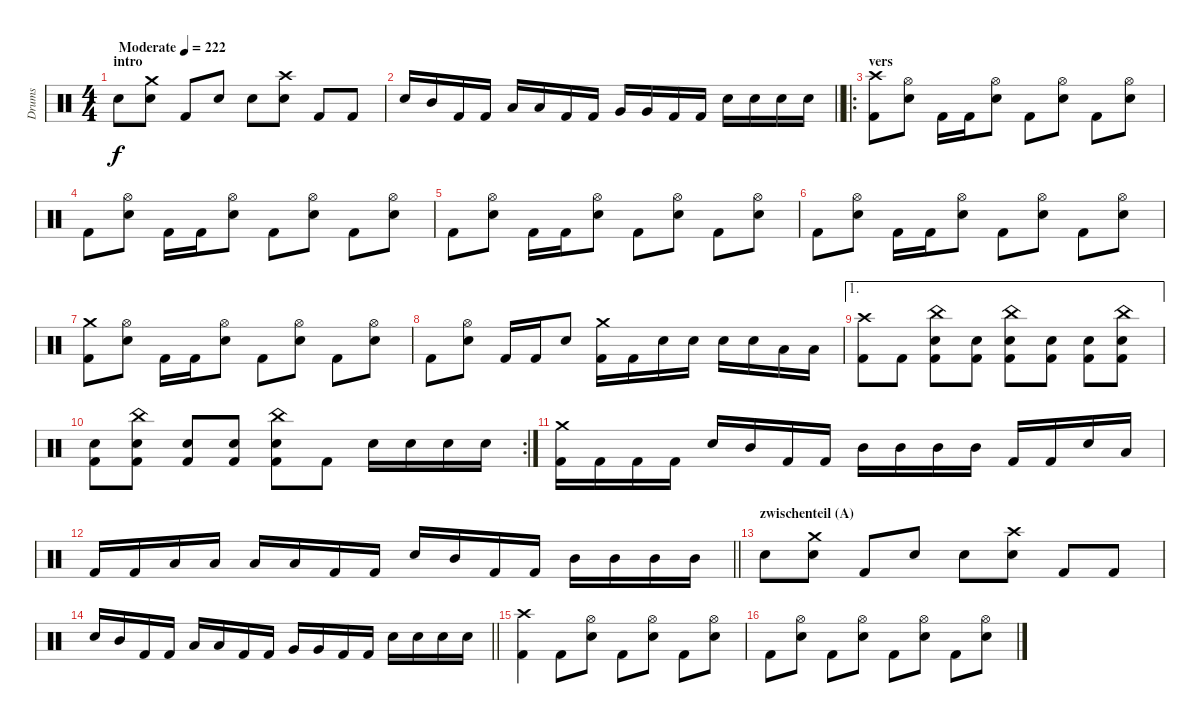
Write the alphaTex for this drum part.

\track ("Drums" "Drums") {instrument percussion}
\staff {score}
\articulation defaults
\ts (4 4)
\section ("" "intro")
\tempo (222 "Moderate")
\clef neutral
\ks c "Electric Snare (hit)".8{dy f}
("Crash medium (hit)" "Electric Snare (hit)").8 "Kick (hit) 2".8 "Electric Snare (hit)".8 "Electric Snare (hit)".8 ("Crash high (hit)" "Electric Snare (hit)").8 "Kick (hit) 2".8 "Kick (hit) 2".8 |
\barLineRight lightlight "Electric Snare (hit)".16 "Mid Tom (hit)".16 "Kick (hit) 2".16 "Kick (hit) 2".16 "Low Tom (hit)".16 "Low Tom (hit)".16 "Kick (hit) 2".16 "Kick (hit) 2".16 "Very Low Tom (hit)".16 "Very Low Tom (hit)".16 "Kick (hit) 2".16 "Kick (hit) 2".16 "Electric Snare (hit)".16 "Electric Snare (hit)".16 "Electric Snare (hit)".16 "Electric Snare (hit)".16
|
\ro
\section ("" "vers")
("Crash high (hit)" "Kick (hit) 2").8 ("Hi-Hat (open)" "Electric Snare (hit)").8 "Kick (hit) 2".16 "Kick (hit) 2".16 ("Hi-Hat (open)" "Electric Snare (hit)").8 "Kick (hit) 2".8 ("Hi-Hat (open)" "Electric Snare (hit)").8 "Kick (hit) 2".8 ("Hi-Hat (open)" "Electric Snare (hit)").8 |
"Kick (hit) 2".8 ("Hi-Hat (open)" "Electric Snare (hit)").8 "Kick (hit) 2".16 "Kick (hit) 2".16 ("Hi-Hat (open)" "Electric Snare (hit)").8 "Kick (hit) 2".8 ("Hi-Hat (open)" "Electric Snare (hit)").8 "Kick (hit) 2".8 ("Hi-Hat (open)" "Electric Snare (hit)").8 |
"Kick (hit) 2".8 ("Hi-Hat (open)" "Electric Snare (hit)").8 "Kick (hit) 2".16 "Kick (hit) 2".16 ("Hi-Hat (open)" "Electric Snare (hit)").8 "Kick (hit) 2".8 ("Hi-Hat (open)" "Electric Snare (hit)").8 "Kick (hit) 2".8 ("Hi-Hat (open)" "Electric Snare (hit)").8 |
"Kick (hit) 2".8 ("Hi-Hat (open)" "Electric Snare (hit)").8 "Kick (hit) 2".16 "Kick (hit) 2".16 ("Hi-Hat (open)" "Electric Snare (hit)").8 "Kick (hit) 2".8 ("Hi-Hat (open)" "Electric Snare (hit)").8 "Kick (hit) 2".8 ("Hi-Hat (open)" "Electric Snare (hit)").8 |
("Crash medium (hit)" "Kick (hit) 2").8 ("Hi-Hat (open)" "Electric Snare (hit)").8 "Kick (hit) 2".16 "Kick (hit) 2".16 ("Hi-Hat (open)" "Electric Snare (hit)").8 "Kick (hit) 2".8 ("Hi-Hat (open)" "Electric Snare (hit)").8 "Kick (hit) 2".8 ("Hi-Hat (open)" "Electric Snare (hit)").8 |
"Kick (hit) 2".8 ("Hi-Hat (open)" "Electric Snare (hit)").8 "Kick (hit) 2".16 "Kick (hit) 2".16 "Electric Snare (hit)".8 ("Crash medium (hit)" "Kick (hit) 2").16 "Kick (hit) 2".16 "Electric Snare (hit)".16 "Electric Snare (hit)".16 "Electric Snare (hit)".16 "Electric Snare (hit)".16 "Low Tom (hit)".16 "Low Tom (hit)".16 |
\ae 1
("Crash high (hit)" "Kick (hit) 2").8 "Kick (hit) 2".8 ("China (hit)" "Electric Snare (hit)" "Kick (hit) 2").8 ("Electric Snare (hit)" "Kick (hit) 2").8 ("China (hit)" "Electric Snare (hit)" "Kick (hit) 2").8 ("Electric Snare (hit)" "Kick (hit) 2").8 ("Electric Snare (hit)" "Kick (hit) 2").8 ("China (hit)" "Electric Snare (hit)" "Kick (hit) 2").8 |
\rc 2
("Electric Snare (hit)" "Kick (hit) 2").8 ("China (hit)" "Electric Snare (hit)" "Kick (hit) 2").8 ("Electric Snare (hit)" "Kick (hit) 2").8 ("Electric Snare (hit)" "Kick (hit) 2").8 ("China (hit)" "Electric Snare (hit)" "Kick (hit) 2").8 "Kick (hit) 2".8 "Electric Snare (hit)".16 "Electric Snare (hit)".16 "Electric Snare (hit)".16 "Electric Snare (hit)".16 |
("Crash medium (hit)" "Kick (hit) 2").16 "Kick (hit) 2".16 "Kick (hit) 2".16 "Kick (hit) 2".16 "Electric Snare (hit)".16 "Mid Tom (hit)".16 "Kick (hit) 2".16 "Kick (hit) 2".16 "Mid Tom (hit)".16 "Mid Tom (hit)".16 "Mid Tom (hit)".16 "Mid Tom (hit)".16 "Kick (hit) 2".16 "Kick (hit) 2".16 "Electric Snare (hit)".16 "Low Tom (hit)".16 |
\barLineRight lightlight "Kick (hit) 2".16 "Kick (hit) 2".16 "Low Tom (hit)".16 "Low Tom (hit)".16 "Low Tom (hit)".16 "Low Tom (hit)".16 "Kick (hit) 2".16 "Kick (hit) 2".16 "Electric Snare (hit)".16 "Mid Tom (hit)".16 "Kick (hit) 2".16 "Kick (hit) 2".16 "Mid Tom (hit)".16 "Mid Tom (hit)".16 "Mid Tom (hit)".16 "Mid Tom (hit)".16
|
\section ("" "zwischenteil (A)")
"Electric Snare (hit)".8 ("Crash medium (hit)" "Electric Snare (hit)").8 "Kick (hit) 2".8 "Electric Snare (hit)".8 "Electric Snare (hit)".8 ("Crash high (hit)" "Electric Snare (hit)").8 "Kick (hit) 2".8 "Kick (hit) 2".8 |
\barLineRight lightlight "Electric Snare (hit)".16 "Mid Tom (hit)".16 "Kick (hit) 2".16 "Kick (hit) 2".16 "Low Tom (hit)".16 "Low Tom (hit)".16 "Kick (hit) 2".16 "Kick (hit) 2".16 "Very Low Tom (hit)".16 "Very Low Tom (hit)".16 "Kick (hit) 2".16 "Kick (hit) 2".16 "Electric Snare (hit)".16 "Electric Snare (hit)".16 "Electric Snare (hit)".16 "Electric Snare (hit)".16
|
("Crash high (hit)" "Kick (hit) 2").4 "Kick (hit) 2".8 ("Hi-Hat (open)" "Electric Snare (hit)").8 "Kick (hit) 2".8 ("Hi-Hat (open)" "Electric Snare (hit)").8 "Kick (hit) 2".8 ("Hi-Hat (open)" "Electric Snare (hit)").8 |
"Kick (hit) 2".8 ("Hi-Hat (open)" "Electric Snare (hit)").8 "Kick (hit) 2".8 ("Hi-Hat (open)" "Electric Snare (hit)").8 "Kick (hit) 2".8 ("Hi-Hat (open)" "Electric Snare (hit)").8 "Kick (hit) 2".8 ("Hi-Hat (open)" "Electric Snare (hit)").8
